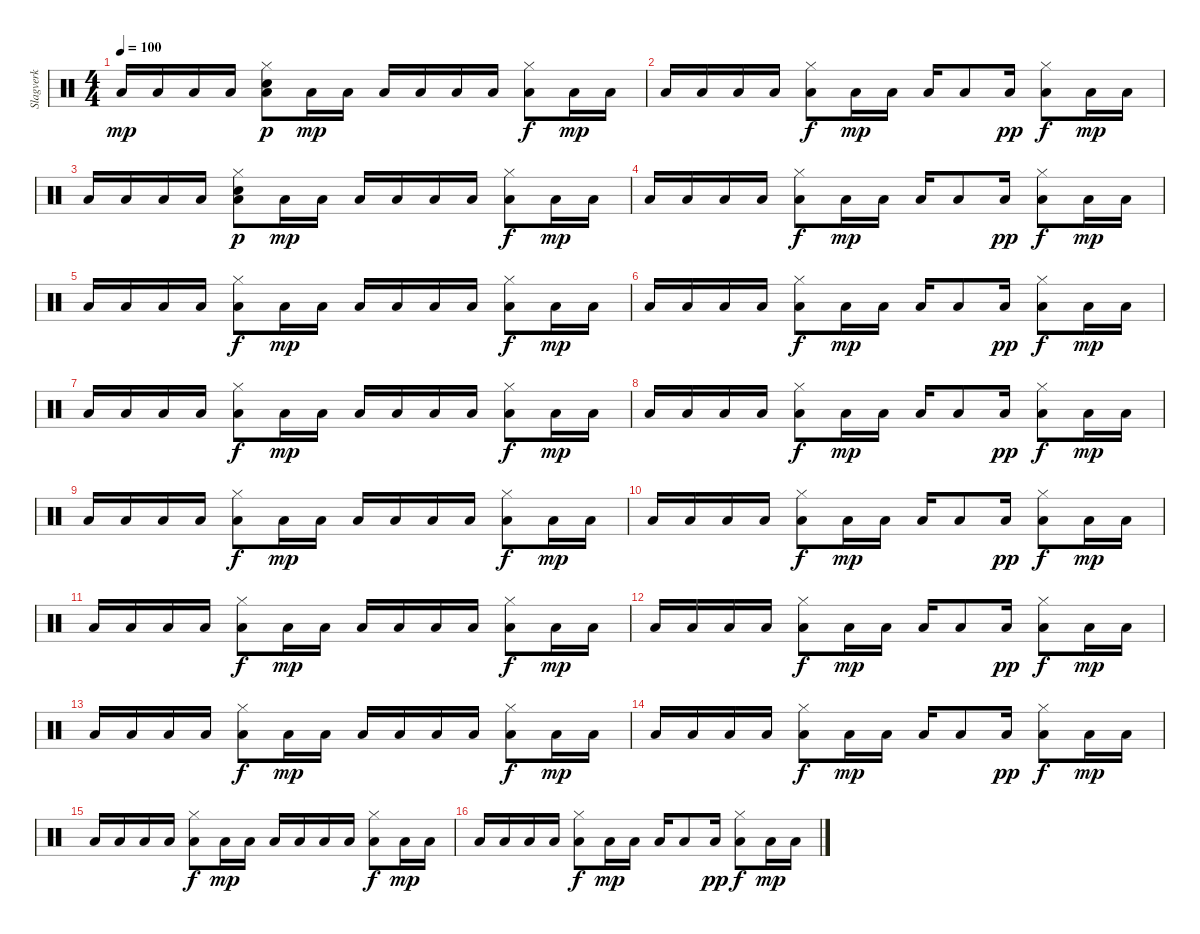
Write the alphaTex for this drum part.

\track ("Slagverk" "Slagverk") {instrument percussion}
\staff {score}
\articulation defaults
\ts (4 4)
\tempo 100
\clef neutral
\ks c "Low Tom (hit)".16{dy mp} "Low Tom (hit)".16 "Low Tom (hit)".16 "Low Tom (hit)".16
("Low Floor Tom (hit)" "Hi-Hat (closed)" "Snare (hit) 2").8{dy p} "Low Tom (hit)".16{dy mp} "Low Tom (hit)".16 "Low Tom (hit)".16 "Low Tom (hit)".16 "Low Tom (hit)".16 "Low Tom (hit)".16 ("Low Floor Tom (hit)" "Hi-Hat (closed)").8{dy f} "Low Tom (hit)".16{dy mp} "Low Tom (hit)".16 |
"Low Tom (hit)".16 "Low Tom (hit)".16 "Low Tom (hit)".16 "Low Tom (hit)".16 ("Low Floor Tom (hit)" "Hi-Hat (closed)").8{dy f} "Low Tom (hit)".16{dy mp} "Low Tom (hit)".16 "Low Tom (hit)".16 "Low Tom (hit)".8 "Low Tom (hit)".16{dy pp} ("Low Floor Tom (hit)" "Hi-Hat (closed)").8{dy f} "Low Tom (hit)".16{dy mp} "Low Tom (hit)".16 |
"Low Tom (hit)".16 "Low Tom (hit)".16 "Low Tom (hit)".16 "Low Tom (hit)".16 ("Low Floor Tom (hit)" "Hi-Hat (closed)" "Snare (hit) 2").8{dy p} "Low Tom (hit)".16{dy mp} "Low Tom (hit)".16 "Low Tom (hit)".16 "Low Tom (hit)".16 "Low Tom (hit)".16 "Low Tom (hit)".16 ("Low Floor Tom (hit)" "Hi-Hat (closed)").8{dy f} "Low Tom (hit)".16{dy mp} "Low Tom (hit)".16 |
"Low Tom (hit)".16 "Low Tom (hit)".16 "Low Tom (hit)".16 "Low Tom (hit)".16 ("Low Floor Tom (hit)" "Hi-Hat (closed)").8{dy f} "Low Tom (hit)".16{dy mp} "Low Tom (hit)".16 "Low Tom (hit)".16 "Low Tom (hit)".8 "Low Tom (hit)".16{dy pp} ("Low Floor Tom (hit)" "Hi-Hat (closed)").8{dy f} "Low Tom (hit)".16{dy mp} "Low Tom (hit)".16 |
"Low Tom (hit)".16 "Low Tom (hit)".16 "Low Tom (hit)".16 "Low Tom (hit)".16 ("Low Floor Tom (hit)" "Hi-Hat (closed)").8{dy f} "Low Tom (hit)".16{dy mp} "Low Tom (hit)".16 "Low Tom (hit)".16 "Low Tom (hit)".16 "Low Tom (hit)".16 "Low Tom (hit)".16 ("Low Floor Tom (hit)" "Hi-Hat (closed)").8{dy f} "Low Tom (hit)".16{dy mp} "Low Tom (hit)".16 |
"Low Tom (hit)".16 "Low Tom (hit)".16 "Low Tom (hit)".16 "Low Tom (hit)".16 ("Low Floor Tom (hit)" "Hi-Hat (closed)").8{dy f} "Low Tom (hit)".16{dy mp} "Low Tom (hit)".16 "Low Tom (hit)".16 "Low Tom (hit)".8 "Low Tom (hit)".16{dy pp} ("Low Floor Tom (hit)" "Hi-Hat (closed)").8{dy f} "Low Tom (hit)".16{dy mp} "Low Tom (hit)".16 |
"Low Tom (hit)".16 "Low Tom (hit)".16 "Low Tom (hit)".16 "Low Tom (hit)".16 ("Low Floor Tom (hit)" "Hi-Hat (closed)").8{dy f} "Low Tom (hit)".16{dy mp} "Low Tom (hit)".16 "Low Tom (hit)".16 "Low Tom (hit)".16 "Low Tom (hit)".16 "Low Tom (hit)".16 ("Low Floor Tom (hit)" "Hi-Hat (closed)").8{dy f} "Low Tom (hit)".16{dy mp} "Low Tom (hit)".16 |
"Low Tom (hit)".16 "Low Tom (hit)".16 "Low Tom (hit)".16 "Low Tom (hit)".16 ("Low Floor Tom (hit)" "Hi-Hat (closed)").8{dy f} "Low Tom (hit)".16{dy mp} "Low Tom (hit)".16 "Low Tom (hit)".16 "Low Tom (hit)".8 "Low Tom (hit)".16{dy pp} ("Low Floor Tom (hit)" "Hi-Hat (closed)").8{dy f} "Low Tom (hit)".16{dy mp} "Low Tom (hit)".16 |
"Low Tom (hit)".16 "Low Tom (hit)".16 "Low Tom (hit)".16 "Low Tom (hit)".16 ("Low Floor Tom (hit)" "Hi-Hat (closed)").8{dy f} "Low Tom (hit)".16{dy mp} "Low Tom (hit)".16 "Low Tom (hit)".16 "Low Tom (hit)".16 "Low Tom (hit)".16 "Low Tom (hit)".16 ("Low Floor Tom (hit)" "Hi-Hat (closed)").8{dy f} "Low Tom (hit)".16{dy mp} "Low Tom (hit)".16 |
"Low Tom (hit)".16 "Low Tom (hit)".16 "Low Tom (hit)".16 "Low Tom (hit)".16 ("Low Floor Tom (hit)" "Hi-Hat (closed)").8{dy f} "Low Tom (hit)".16{dy mp} "Low Tom (hit)".16 "Low Tom (hit)".16 "Low Tom (hit)".8 "Low Tom (hit)".16{dy pp} ("Low Floor Tom (hit)" "Hi-Hat (closed)").8{dy f} "Low Tom (hit)".16{dy mp} "Low Tom (hit)".16 |
"Low Tom (hit)".16 "Low Tom (hit)".16 "Low Tom (hit)".16 "Low Tom (hit)".16 ("Low Floor Tom (hit)" "Hi-Hat (closed)").8{dy f} "Low Tom (hit)".16{dy mp} "Low Tom (hit)".16 "Low Tom (hit)".16 "Low Tom (hit)".16 "Low Tom (hit)".16 "Low Tom (hit)".16 ("Low Floor Tom (hit)" "Hi-Hat (closed)").8{dy f} "Low Tom (hit)".16{dy mp} "Low Tom (hit)".16 |
"Low Tom (hit)".16 "Low Tom (hit)".16 "Low Tom (hit)".16 "Low Tom (hit)".16 ("Low Floor Tom (hit)" "Hi-Hat (closed)").8{dy f} "Low Tom (hit)".16{dy mp} "Low Tom (hit)".16 "Low Tom (hit)".16 "Low Tom (hit)".8 "Low Tom (hit)".16{dy pp} ("Low Floor Tom (hit)" "Hi-Hat (closed)").8{dy f} "Low Tom (hit)".16{dy mp} "Low Tom (hit)".16 |
"Low Tom (hit)".16 "Low Tom (hit)".16 "Low Tom (hit)".16 "Low Tom (hit)".16 ("Low Floor Tom (hit)" "Hi-Hat (closed)").8{dy f} "Low Tom (hit)".16{dy mp} "Low Tom (hit)".16 "Low Tom (hit)".16 "Low Tom (hit)".16 "Low Tom (hit)".16 "Low Tom (hit)".16 ("Low Floor Tom (hit)" "Hi-Hat (closed)").8{dy f} "Low Tom (hit)".16{dy mp} "Low Tom (hit)".16 |
"Low Tom (hit)".16 "Low Tom (hit)".16 "Low Tom (hit)".16 "Low Tom (hit)".16 ("Low Floor Tom (hit)" "Hi-Hat (closed)").8{dy f} "Low Tom (hit)".16{dy mp} "Low Tom (hit)".16 "Low Tom (hit)".16 "Low Tom (hit)".8 "Low Tom (hit)".16{dy pp} ("Low Floor Tom (hit)" "Hi-Hat (closed)").8{dy f} "Low Tom (hit)".16{dy mp} "Low Tom (hit)".16 |
"Low Tom (hit)".16 "Low Tom (hit)".16 "Low Tom (hit)".16 "Low Tom (hit)".16 ("Low Floor Tom (hit)" "Hi-Hat (closed)").8{dy f} "Low Tom (hit)".16{dy mp} "Low Tom (hit)".16 "Low Tom (hit)".16 "Low Tom (hit)".16 "Low Tom (hit)".16 "Low Tom (hit)".16 ("Low Floor Tom (hit)" "Hi-Hat (closed)").8{dy f} "Low Tom (hit)".16{dy mp} "Low Tom (hit)".16 |
"Low Tom (hit)".16 "Low Tom (hit)".16 "Low Tom (hit)".16 "Low Tom (hit)".16 ("Low Floor Tom (hit)" "Hi-Hat (closed)").8{dy f} "Low Tom (hit)".16{dy mp} "Low Tom (hit)".16 "Low Tom (hit)".16 "Low Tom (hit)".8 "Low Tom (hit)".16{dy pp} ("Low Floor Tom (hit)" "Hi-Hat (closed)").8{dy f} "Low Tom (hit)".16{dy mp} "Low Tom (hit)".16
